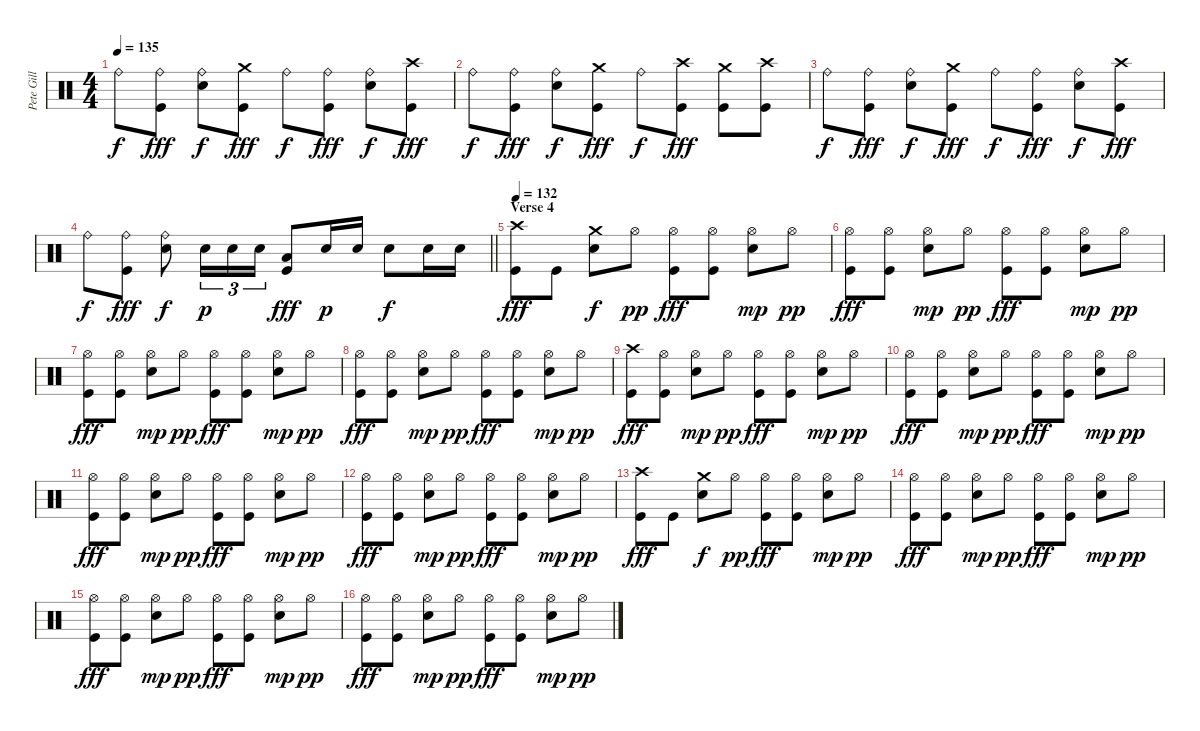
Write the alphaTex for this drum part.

\track ("Pete Gill" "Pete Gill") {instrument percussion}
\staff {score}
\articulation defaults
\ts (4 4)
\tempo 135
\clef neutral
\ks c "Ride (bell)".8{dy f}
("Ride (bell)" "Kick (hit)").8{dy fff} ("Ride (bell)" "Electric Snare (hit)").8{dy f} ("Crash medium (hit)" "Kick (hit)").8{dy fff} "Ride (bell)".8{dy f} ("Ride (bell)" "Kick (hit)").8{dy fff} ("Ride (bell)" "Electric Snare (hit)").8{dy f} ("Crash high (hit)" "Kick (hit)").8{dy fff} |
"Ride (bell)".8{dy f} ("Ride (bell)" "Kick (hit)").8{dy fff} ("Ride (bell)" "Electric Snare (hit)").8{dy f} ("Crash medium (hit)" "Kick (hit)").8{dy fff} "Ride (bell)".8{dy f} ("Crash high (hit)" "Kick (hit)").8{dy fff} ("Crash medium (hit)" "Kick (hit)").8 ("Crash high (hit)" "Kick (hit)").8 |
"Ride (bell)".8{dy f} ("Ride (bell)" "Kick (hit)").8{dy fff} ("Ride (bell)" "Electric Snare (hit)").8{dy f} ("Crash medium (hit)" "Kick (hit)").8{dy fff} "Ride (bell)".8{dy f} ("Ride (bell)" "Kick (hit)").8{dy fff} ("Ride (bell)" "Electric Snare (hit)").8{dy f} ("Crash high (hit)" "Kick (hit)").8{dy fff} |
\barLineRight lightlight "Ride (bell)".8{dy f}
("Ride (bell)" "Kick (hit)").8{dy fff} ("Ride (bell)" "Electric Snare (hit)").8{dy f} "Electric Snare (hit)".16{tu (3 2) dy p} "Electric Snare (hit)".16{tu (3 2)} "Electric Snare (hit)".16{tu (3 2)} ("Low Tom (hit)" "Kick (hit)").8{dy fff} "Electric Snare (hit)".16{dy p} "Electric Snare (hit)".16 "Electric Snare (hit)".8{dy f} "Electric Snare (hit)".16 "Electric Snare (hit)".16 |
\section ("" "Verse 4")
\tempo 132
("Crash high (hit)" "Kick (hit)").8{dy fff} "Kick (hit)".8 ("Crash medium (hit)" "Electric Snare (hit)").8{dy f} "Hi-Hat (open)".8{dy pp} ("Hi-Hat (open)" "Kick (hit)").8{dy fff} ("Hi-Hat (open)" "Kick (hit)").8 ("Hi-Hat (open)" "Electric Snare (hit)").8{dy mp} "Hi-Hat (open)".8{dy pp} |
("Hi-Hat (open)" "Kick (hit)").8{dy fff} ("Hi-Hat (open)" "Kick (hit)").8 ("Hi-Hat (open)" "Electric Snare (hit)").8{dy mp} "Hi-Hat (open)".8{dy pp} ("Hi-Hat (open)" "Kick (hit)").8{dy fff} ("Hi-Hat (open)" "Kick (hit)").8 ("Hi-Hat (open)" "Electric Snare (hit)").8{dy mp} "Hi-Hat (open)".8{dy pp} |
("Hi-Hat (open)" "Kick (hit)").8{dy fff} ("Hi-Hat (open)" "Kick (hit)").8 ("Hi-Hat (open)" "Electric Snare (hit)").8{dy mp} "Hi-Hat (open)".8{dy pp} ("Hi-Hat (open)" "Kick (hit)").8{dy fff} ("Hi-Hat (open)" "Kick (hit)").8 ("Hi-Hat (open)" "Electric Snare (hit)").8{dy mp} "Hi-Hat (open)".8{dy pp} |
("Hi-Hat (open)" "Kick (hit)").8{dy fff} ("Hi-Hat (open)" "Kick (hit)").8 ("Hi-Hat (open)" "Electric Snare (hit)").8{dy mp} "Hi-Hat (open)".8{dy pp} ("Hi-Hat (open)" "Kick (hit)").8{dy fff} ("Hi-Hat (open)" "Kick (hit)").8 ("Hi-Hat (open)" "Electric Snare (hit)").8{dy mp} "Hi-Hat (open)".8{dy pp} |
("Crash high (hit)" "Kick (hit)").8{dy fff} ("Hi-Hat (open)" "Kick (hit)").8 ("Hi-Hat (open)" "Electric Snare (hit)").8{dy mp} "Hi-Hat (open)".8{dy pp} ("Hi-Hat (open)" "Kick (hit)").8{dy fff} ("Hi-Hat (open)" "Kick (hit)").8 ("Hi-Hat (open)" "Electric Snare (hit)").8{dy mp} "Hi-Hat (open)".8{dy pp} |
("Hi-Hat (open)" "Kick (hit)").8{dy fff} ("Hi-Hat (open)" "Kick (hit)").8 ("Hi-Hat (open)" "Electric Snare (hit)").8{dy mp} "Hi-Hat (open)".8{dy pp} ("Hi-Hat (open)" "Kick (hit)").8{dy fff} ("Hi-Hat (open)" "Kick (hit)").8 ("Hi-Hat (open)" "Electric Snare (hit)").8{dy mp} "Hi-Hat (open)".8{dy pp} |
("Hi-Hat (open)" "Kick (hit)").8{dy fff} ("Hi-Hat (open)" "Kick (hit)").8 ("Hi-Hat (open)" "Electric Snare (hit)").8{dy mp} "Hi-Hat (open)".8{dy pp} ("Hi-Hat (open)" "Kick (hit)").8{dy fff} ("Hi-Hat (open)" "Kick (hit)").8 ("Hi-Hat (open)" "Electric Snare (hit)").8{dy mp} "Hi-Hat (open)".8{dy pp} |
("Hi-Hat (open)" "Kick (hit)").8{dy fff} ("Hi-Hat (open)" "Kick (hit)").8 ("Hi-Hat (open)" "Electric Snare (hit)").8{dy mp} "Hi-Hat (open)".8{dy pp} ("Hi-Hat (open)" "Kick (hit)").8{dy fff} ("Hi-Hat (open)" "Kick (hit)").8 ("Hi-Hat (open)" "Electric Snare (hit)").8{dy mp} "Hi-Hat (open)".8{dy pp} |
("Crash high (hit)" "Kick (hit)").8{dy fff} "Kick (hit)".8 ("Crash medium (hit)" "Electric Snare (hit)").8{dy f} "Hi-Hat (open)".8{dy pp} ("Hi-Hat (open)" "Kick (hit)").8{dy fff} ("Hi-Hat (open)" "Kick (hit)").8 ("Hi-Hat (open)" "Electric Snare (hit)").8{dy mp} "Hi-Hat (open)".8{dy pp} |
("Hi-Hat (open)" "Kick (hit)").8{dy fff} ("Hi-Hat (open)" "Kick (hit)").8 ("Hi-Hat (open)" "Electric Snare (hit)").8{dy mp} "Hi-Hat (open)".8{dy pp} ("Hi-Hat (open)" "Kick (hit)").8{dy fff} ("Hi-Hat (open)" "Kick (hit)").8 ("Hi-Hat (open)" "Electric Snare (hit)").8{dy mp} "Hi-Hat (open)".8{dy pp} |
("Hi-Hat (open)" "Kick (hit)").8{dy fff} ("Hi-Hat (open)" "Kick (hit)").8 ("Hi-Hat (open)" "Electric Snare (hit)").8{dy mp} "Hi-Hat (open)".8{dy pp} ("Hi-Hat (open)" "Kick (hit)").8{dy fff} ("Hi-Hat (open)" "Kick (hit)").8 ("Hi-Hat (open)" "Electric Snare (hit)").8{dy mp} "Hi-Hat (open)".8{dy pp} |
("Hi-Hat (open)" "Kick (hit)").8{dy fff} ("Hi-Hat (open)" "Kick (hit)").8 ("Hi-Hat (open)" "Electric Snare (hit)").8{dy mp} "Hi-Hat (open)".8{dy pp} ("Hi-Hat (open)" "Kick (hit)").8{dy fff} ("Hi-Hat (open)" "Kick (hit)").8 ("Hi-Hat (open)" "Electric Snare (hit)").8{dy mp} "Hi-Hat (open)".8{dy pp}
